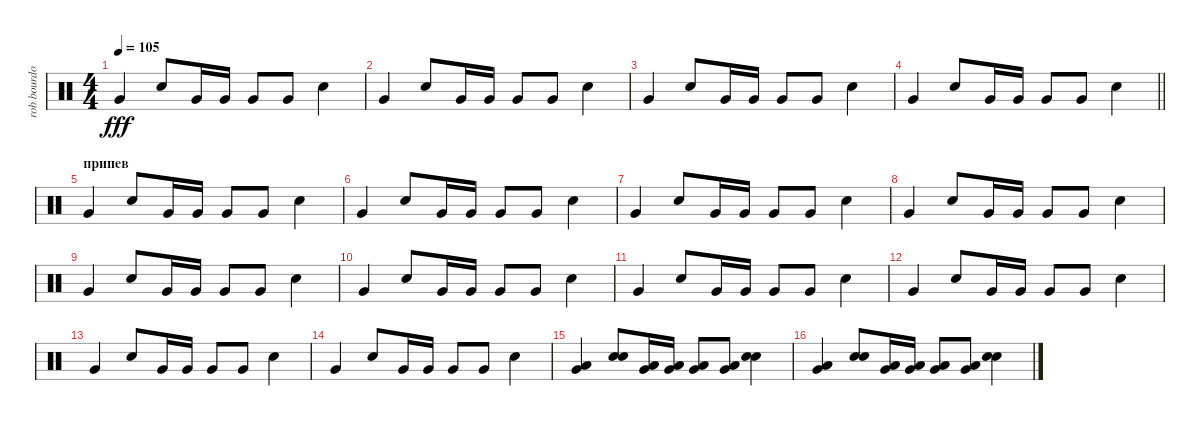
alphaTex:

\track ("rob bourdon" "rob bourdo") {instrument percussion}
\staff {score}
\articulation defaults
\ts (4 4)
\tempo 105
\clef neutral
\ks c "Very Low Tom (hit)".4{dy fff} "Snare (hit) 2".8 "Very Low Tom (hit)".16 "Very Low Tom (hit)".16 "Very Low Tom (hit)".8 "Very Low Tom (hit)".8 "Snare (hit) 2".4
|
"Very Low Tom (hit)".4 "Snare (hit) 2".8 "Very Low Tom (hit)".16 "Very Low Tom (hit)".16 "Very Low Tom (hit)".8 "Very Low Tom (hit)".8 "Snare (hit) 2".4 |
"Very Low Tom (hit)".4 "Snare (hit) 2".8 "Very Low Tom (hit)".16 "Very Low Tom (hit)".16 "Very Low Tom (hit)".8 "Very Low Tom (hit)".8 "Snare (hit) 2".4 |
\barLineRight lightlight "Very Low Tom (hit)".4 "Snare (hit) 2".8 "Very Low Tom (hit)".16 "Very Low Tom (hit)".16 "Very Low Tom (hit)".8 "Very Low Tom (hit)".8 "Snare (hit) 2".4
|
\section ("" "припев")
"Very Low Tom (hit)".4 "Snare (hit) 2".8 "Very Low Tom (hit)".16 "Very Low Tom (hit)".16 "Very Low Tom (hit)".8 "Very Low Tom (hit)".8 "Snare (hit) 2".4 |
"Very Low Tom (hit)".4 "Snare (hit) 2".8 "Very Low Tom (hit)".16 "Very Low Tom (hit)".16 "Very Low Tom (hit)".8 "Very Low Tom (hit)".8 "Snare (hit) 2".4 |
"Very Low Tom (hit)".4 "Snare (hit) 2".8 "Very Low Tom (hit)".16 "Very Low Tom (hit)".16 "Very Low Tom (hit)".8 "Very Low Tom (hit)".8 "Snare (hit) 2".4 |
"Very Low Tom (hit)".4 "Snare (hit) 2".8 "Very Low Tom (hit)".16 "Very Low Tom (hit)".16 "Very Low Tom (hit)".8 "Very Low Tom (hit)".8 "Snare (hit) 2".4 |
"Very Low Tom (hit)".4 "Snare (hit) 2".8 "Very Low Tom (hit)".16 "Very Low Tom (hit)".16 "Very Low Tom (hit)".8 "Very Low Tom (hit)".8 "Snare (hit) 2".4 |
"Very Low Tom (hit)".4 "Snare (hit) 2".8 "Very Low Tom (hit)".16 "Very Low Tom (hit)".16 "Very Low Tom (hit)".8 "Very Low Tom (hit)".8 "Snare (hit) 2".4 |
"Very Low Tom (hit)".4 "Snare (hit) 2".8 "Very Low Tom (hit)".16 "Very Low Tom (hit)".16 "Very Low Tom (hit)".8 "Very Low Tom (hit)".8 "Snare (hit) 2".4 |
"Very Low Tom (hit)".4 "Snare (hit) 2".8 "Very Low Tom (hit)".16 "Very Low Tom (hit)".16 "Very Low Tom (hit)".8 "Very Low Tom (hit)".8 "Snare (hit) 2".4 |
"Very Low Tom (hit)".4 "Snare (hit) 2".8 "Very Low Tom (hit)".16 "Very Low Tom (hit)".16 "Very Low Tom (hit)".8 "Very Low Tom (hit)".8 "Snare (hit) 2".4 |
"Very Low Tom (hit)".4 "Snare (hit) 2".8 "Very Low Tom (hit)".16 "Very Low Tom (hit)".16 "Very Low Tom (hit)".8 "Very Low Tom (hit)".8 "Snare (hit) 2".4 |
("Very Low Tom (hit)" "Low Floor Tom (hit)").4 ("Snare (hit) 2" "Electric Snare (hit)").8 ("Very Low Tom (hit)" "Low Floor Tom (hit)").16 ("Very Low Tom (hit)" "Low Floor Tom (hit)").16 ("Very Low Tom (hit)" "Low Floor Tom (hit)").8 ("Very Low Tom (hit)" "Low Floor Tom (hit)").8 ("Snare (hit) 2" "Electric Snare (hit)").4 |
("Very Low Tom (hit)" "Low Floor Tom (hit)").4 ("Snare (hit) 2" "Electric Snare (hit)").8 ("Very Low Tom (hit)" "Low Floor Tom (hit)").16 ("Very Low Tom (hit)" "Low Floor Tom (hit)").16 ("Very Low Tom (hit)" "Low Floor Tom (hit)").8 ("Very Low Tom (hit)" "Low Floor Tom (hit)").8 ("Snare (hit) 2" "Electric Snare (hit)").4
